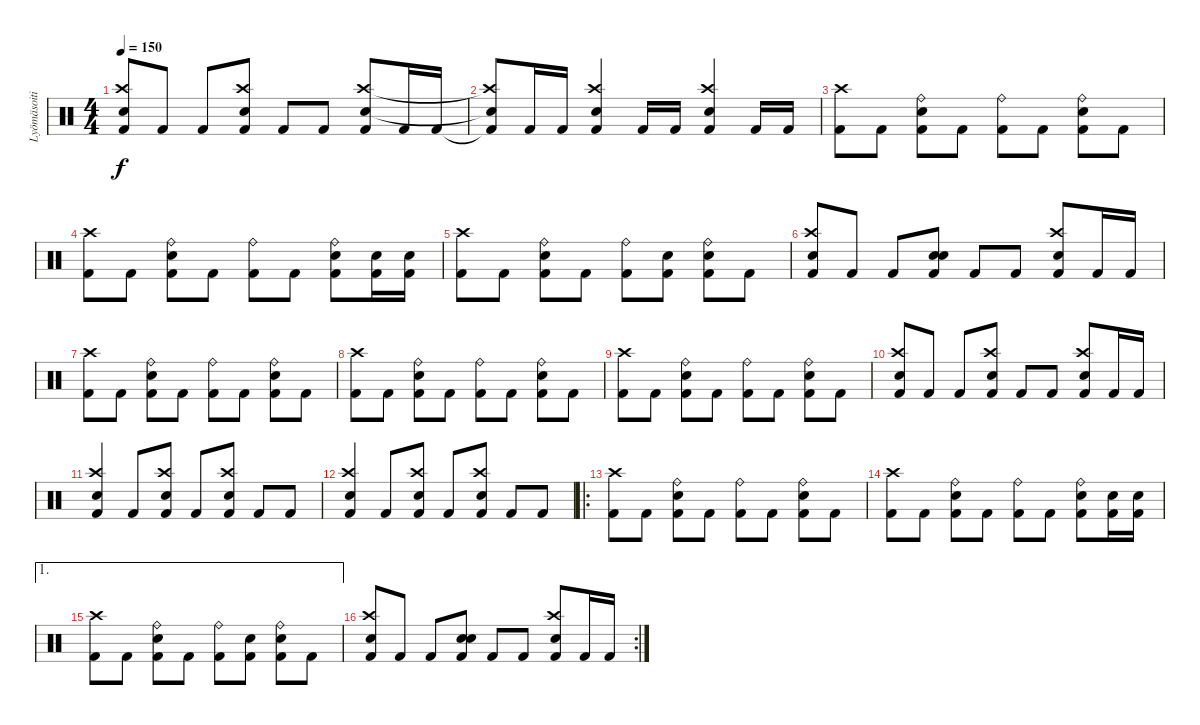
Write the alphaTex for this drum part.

\track ("Lyömäsoitin" "Lyömäsoiti") {instrument percussion}
\staff {score}
\articulation defaults
\ts (4 4)
\tempo 150
\clef neutral
\ks c
("Kick (hit) 2" "Crash high (hit)" "Electric Snare (hit)").8{dy f} "Kick (hit) 2".8 "Kick (hit) 2".8 ("Kick (hit) 2" "Crash high (hit)" "Electric Snare (hit)").8 "Kick (hit) 2".8 "Kick (hit) 2".8 ("Kick (hit) 2" "Crash high (hit)" "Electric Snare (hit)").8 "Kick (hit) 2".16 "Kick (hit) 2".16 |
("Kick (hit) 2"{t} "Crash high (hit)"{t} "Electric Snare (hit)"{t}).8 "Kick (hit) 2".16 "Kick (hit) 2".16 ("Kick (hit) 2" "Electric Snare (hit)" "Crash high (hit)").4 "Kick (hit) 2".16 "Kick (hit) 2".16 ("Kick (hit) 2" "Electric Snare (hit)" "Crash high (hit)").4 "Kick (hit) 2".16 "Kick (hit) 2".16 |
("Kick (hit) 2" "Crash high (hit)").8 "Kick (hit) 2".8 ("Kick (hit) 2" "Ride (bell)" "Electric Snare (hit)").8 "Kick (hit) 2".8 ("Kick (hit) 2" "Ride (bell)").8 "Kick (hit) 2".8 ("Kick (hit) 2" "Ride (bell)" "Electric Snare (hit)").8 "Kick (hit) 2".8 |
("Kick (hit) 2" "Crash high (hit)").8 "Kick (hit) 2".8 ("Kick (hit) 2" "Ride (bell)" "Electric Snare (hit)").8 "Kick (hit) 2".8 ("Kick (hit) 2" "Ride (bell)").8 "Kick (hit) 2".8 ("Kick (hit) 2" "Ride (bell)" "Electric Snare (hit)").8 ("Kick (hit) 2" "Electric Snare (hit)").16 ("Kick (hit) 2" "Electric Snare (hit)").16 |
("Kick (hit) 2" "Crash high (hit)").8 "Kick (hit) 2".8 ("Kick (hit) 2" "Ride (bell)" "Electric Snare (hit)").8 "Kick (hit) 2".8 ("Kick (hit) 2" "Ride (bell)").8 ("Kick (hit) 2" "Snare (hit)").8 ("Kick (hit) 2" "Ride (bell)" "Electric Snare (hit)").8 "Kick (hit) 2".8 |
("Kick (hit) 2" "Crash high (hit)" "Electric Snare (hit)").8 "Kick (hit) 2".8 "Kick (hit) 2".8 ("Kick (hit) 2" "Electric Snare (hit)" "Electric Snare (hit)").8 "Kick (hit) 2".8 "Kick (hit) 2".8 ("Kick (hit) 2" "Crash high (hit)" "Electric Snare (hit)").8 "Kick (hit) 2".16 "Kick (hit) 2".16 |
("Kick (hit) 2" "Crash high (hit)").8 "Kick (hit) 2".8 ("Kick (hit) 2" "Ride (bell)" "Electric Snare (hit)").8 "Kick (hit) 2".8 ("Kick (hit) 2" "Ride (bell)").8 "Kick (hit) 2".8 ("Kick (hit) 2" "Ride (bell)" "Electric Snare (hit)").8 "Kick (hit) 2".8 |
("Kick (hit) 2" "Crash high (hit)").8 "Kick (hit) 2".8 ("Kick (hit) 2" "Ride (bell)" "Electric Snare (hit)").8 "Kick (hit) 2".8 ("Kick (hit) 2" "Ride (bell)").8 "Kick (hit) 2".8 ("Kick (hit) 2" "Ride (bell)" "Electric Snare (hit)").8 "Kick (hit) 2".8 |
("Kick (hit) 2" "Crash high (hit)").8 "Kick (hit) 2".8 ("Kick (hit) 2" "Ride (bell)" "Electric Snare (hit)").8 "Kick (hit) 2".8 ("Kick (hit) 2" "Ride (bell)").8 "Kick (hit) 2".8 ("Kick (hit) 2" "Ride (bell)" "Electric Snare (hit)").8 "Kick (hit) 2".8 |
("Kick (hit) 2" "Crash high (hit)" "Electric Snare (hit)").8 "Kick (hit) 2".8 "Kick (hit) 2".8 ("Kick (hit) 2" "Crash high (hit)" "Electric Snare (hit)").8 "Kick (hit) 2".8 "Kick (hit) 2".8 ("Kick (hit) 2" "Crash high (hit)" "Electric Snare (hit)").8 "Kick (hit) 2".16 "Kick (hit) 2".16 |
("Kick (hit) 2" "Crash high (hit)" "Electric Snare (hit)").4 "Kick (hit) 2".8 ("Kick (hit) 2" "Crash high (hit)" "Electric Snare (hit)").8 "Kick (hit) 2".8 ("Kick (hit) 2" "Crash high (hit)" "Electric Snare (hit)").8 "Kick (hit) 2".8 "Kick (hit) 2".8 |
("Kick (hit) 2" "Crash high (hit)" "Electric Snare (hit)").4 "Kick (hit) 2".8 ("Kick (hit) 2" "Crash high (hit)" "Electric Snare (hit)").8 "Kick (hit) 2".8 ("Kick (hit) 2" "Crash high (hit)" "Electric Snare (hit)").8 "Kick (hit) 2".8 "Kick (hit) 2".8 |
\ro
("Kick (hit) 2" "Crash high (hit)").8 "Kick (hit) 2".8 ("Kick (hit) 2" "Ride (bell)" "Electric Snare (hit)").8 "Kick (hit) 2".8 ("Kick (hit) 2" "Ride (bell)").8 "Kick (hit) 2".8 ("Kick (hit) 2" "Ride (bell)" "Electric Snare (hit)").8 "Kick (hit) 2".8 |
("Kick (hit) 2" "Crash high (hit)").8 "Kick (hit) 2".8 ("Kick (hit) 2" "Ride (bell)" "Electric Snare (hit)").8 "Kick (hit) 2".8 ("Kick (hit) 2" "Ride (bell)").8 "Kick (hit) 2".8 ("Kick (hit) 2" "Ride (bell)" "Electric Snare (hit)").8 ("Kick (hit) 2" "Electric Snare (hit)").16 ("Kick (hit) 2" "Electric Snare (hit)").16 |
\ae 1
("Kick (hit) 2" "Crash high (hit)").8 "Kick (hit) 2".8 ("Kick (hit) 2" "Ride (bell)" "Electric Snare (hit)").8 "Kick (hit) 2".8 ("Kick (hit) 2" "Ride (bell)").8 ("Kick (hit) 2" "Snare (hit)").8 ("Kick (hit) 2" "Ride (bell)" "Electric Snare (hit)").8 "Kick (hit) 2".8 |
\rc 2
("Kick (hit) 2" "Crash high (hit)" "Electric Snare (hit)").8 "Kick (hit) 2".8 "Kick (hit) 2".8 ("Kick (hit) 2" "Electric Snare (hit)" "Electric Snare (hit)").8 "Kick (hit) 2".8 "Kick (hit) 2".8 ("Kick (hit) 2" "Crash high (hit)" "Electric Snare (hit)").8 "Kick (hit) 2".16 "Kick (hit) 2".16
